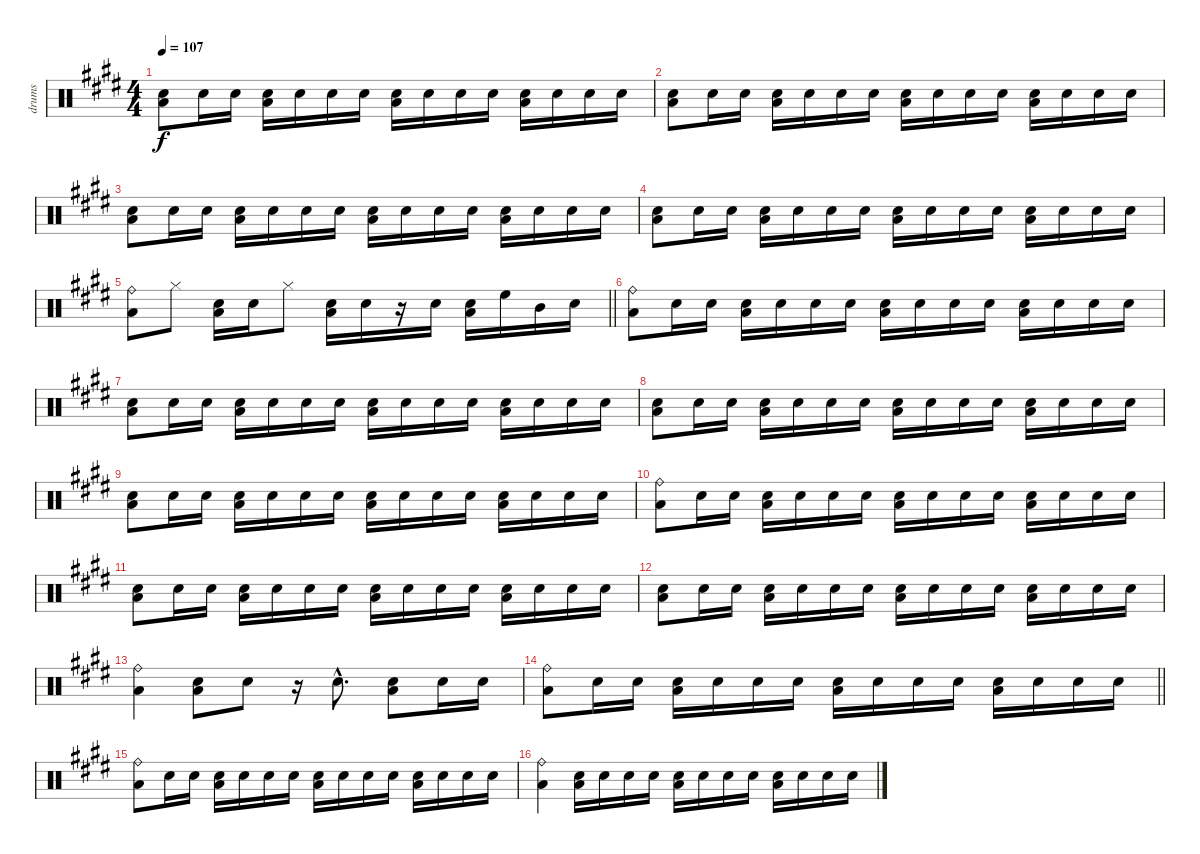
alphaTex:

\track ("drums" "drums") {instrument percussion}
\staff {score}
\articulation defaults
\ts (4 4)
\tempo 107
\clef neutral
\ks e
("Electric Snare (hit)" "Low Floor Tom (hit)").8{dy f} "Electric Snare (hit)".16 "Electric Snare (hit)".16 ("Electric Snare (hit)" "Low Floor Tom (hit)").16 "Electric Snare (hit)".16 "Electric Snare (hit)".16 "Electric Snare (hit)".16 ("Electric Snare (hit)" "Low Floor Tom (hit)").16 "Electric Snare (hit)".16 "Electric Snare (hit)".16 "Electric Snare (hit)".16 ("Electric Snare (hit)" "Low Floor Tom (hit)").16 "Electric Snare (hit)".16 "Electric Snare (hit)".16 "Electric Snare (hit)".16 |
("Electric Snare (hit)" "Low Floor Tom (hit)").8 "Electric Snare (hit)".16 "Electric Snare (hit)".16 ("Electric Snare (hit)" "Low Floor Tom (hit)").16 "Electric Snare (hit)".16 "Electric Snare (hit)".16 "Electric Snare (hit)".16 ("Electric Snare (hit)" "Low Floor Tom (hit)").16 "Electric Snare (hit)".16 "Electric Snare (hit)".16 "Electric Snare (hit)".16 ("Electric Snare (hit)" "Low Floor Tom (hit)").16 "Electric Snare (hit)".16 "Electric Snare (hit)".16 "Electric Snare (hit)".16 |
("Electric Snare (hit)" "Low Floor Tom (hit)").8 "Electric Snare (hit)".16 "Electric Snare (hit)".16 ("Electric Snare (hit)" "Low Floor Tom (hit)").16 "Electric Snare (hit)".16 "Electric Snare (hit)".16 "Electric Snare (hit)".16 ("Electric Snare (hit)" "Low Floor Tom (hit)").16 "Electric Snare (hit)".16 "Electric Snare (hit)".16 "Electric Snare (hit)".16 ("Electric Snare (hit)" "Low Floor Tom (hit)").16 "Electric Snare (hit)".16 "Electric Snare (hit)".16 "Electric Snare (hit)".16 |
("Electric Snare (hit)" "Low Floor Tom (hit)").8 "Electric Snare (hit)".16 "Electric Snare (hit)".16 ("Electric Snare (hit)" "Low Floor Tom (hit)").16 "Electric Snare (hit)".16 "Electric Snare (hit)".16 "Electric Snare (hit)".16 ("Electric Snare (hit)" "Low Floor Tom (hit)").16 "Electric Snare (hit)".16 "Electric Snare (hit)".16 "Electric Snare (hit)".16 ("Electric Snare (hit)" "Low Floor Tom (hit)").16 "Electric Snare (hit)".16 "Electric Snare (hit)".16 "Electric Snare (hit)".16 |
\barLineRight lightlight
("Ride (bell)" "Low Floor Tom (hit)").8 "Hi-Hat (closed)".8 ("Electric Snare (hit)" "Low Floor Tom (hit)").16 "Electric Snare (hit)".16 "Hi-Hat (closed)".8 ("Electric Snare (hit)" "Low Floor Tom (hit)").16 "Electric Snare (hit)".16 r.16 "Electric Snare (hit)".16 ("Electric Snare (hit)" "Low Floor Tom (hit)").16 "High Floor Tom (hit)".16 "Mid Tom (hit)".16 "Snare (hit) 2".16 |
("Ride (bell)" "Low Floor Tom (hit)").8 "Electric Snare (hit)".16 "Electric Snare (hit)".16 ("Electric Snare (hit)" "Low Floor Tom (hit)").16 "Electric Snare (hit)".16 "Electric Snare (hit)".16 "Electric Snare (hit)".16 ("Electric Snare (hit)" "Low Floor Tom (hit)").16 "Electric Snare (hit)".16 "Electric Snare (hit)".16 "Electric Snare (hit)".16 ("Electric Snare (hit)" "Low Floor Tom (hit)").16 "Electric Snare (hit)".16 "Electric Snare (hit)".16 "Electric Snare (hit)".16 |
("Electric Snare (hit)" "Low Floor Tom (hit)").8 "Electric Snare (hit)".16 "Electric Snare (hit)".16 ("Electric Snare (hit)" "Low Floor Tom (hit)").16 "Electric Snare (hit)".16 "Electric Snare (hit)".16 "Electric Snare (hit)".16 ("Electric Snare (hit)" "Low Floor Tom (hit)").16 "Electric Snare (hit)".16 "Electric Snare (hit)".16 "Electric Snare (hit)".16 ("Electric Snare (hit)" "Low Floor Tom (hit)").16 "Electric Snare (hit)".16 "Electric Snare (hit)".16 "Electric Snare (hit)".16 |
("Electric Snare (hit)" "Low Floor Tom (hit)").8 "Electric Snare (hit)".16 "Electric Snare (hit)".16 ("Electric Snare (hit)" "Low Floor Tom (hit)").16 "Electric Snare (hit)".16 "Electric Snare (hit)".16 "Electric Snare (hit)".16 ("Electric Snare (hit)" "Low Floor Tom (hit)").16 "Electric Snare (hit)".16 "Electric Snare (hit)".16 "Electric Snare (hit)".16 ("Electric Snare (hit)" "Low Floor Tom (hit)").16 "Electric Snare (hit)".16 "Electric Snare (hit)".16 "Electric Snare (hit)".16 |
("Electric Snare (hit)" "Low Floor Tom (hit)").8 "Electric Snare (hit)".16 "Electric Snare (hit)".16 ("Electric Snare (hit)" "Low Floor Tom (hit)").16 "Electric Snare (hit)".16 "Electric Snare (hit)".16 "Electric Snare (hit)".16 ("Electric Snare (hit)" "Low Floor Tom (hit)").16 "Electric Snare (hit)".16 "Electric Snare (hit)".16 "Electric Snare (hit)".16 ("Electric Snare (hit)" "Low Floor Tom (hit)").16 "Electric Snare (hit)".16 "Electric Snare (hit)".16 "Electric Snare (hit)".16 |
("Ride (bell)" "Low Floor Tom (hit)").8 "Electric Snare (hit)".16 "Electric Snare (hit)".16 ("Electric Snare (hit)" "Low Floor Tom (hit)").16 "Electric Snare (hit)".16 "Electric Snare (hit)".16 "Electric Snare (hit)".16 ("Electric Snare (hit)" "Low Floor Tom (hit)").16 "Electric Snare (hit)".16 "Electric Snare (hit)".16 "Electric Snare (hit)".16 ("Electric Snare (hit)" "Low Floor Tom (hit)").16 "Electric Snare (hit)".16 "Electric Snare (hit)".16 "Electric Snare (hit)".16 |
("Electric Snare (hit)" "Low Floor Tom (hit)").8 "Electric Snare (hit)".16 "Electric Snare (hit)".16 ("Electric Snare (hit)" "Low Floor Tom (hit)").16 "Electric Snare (hit)".16 "Electric Snare (hit)".16 "Electric Snare (hit)".16 ("Electric Snare (hit)" "Low Floor Tom (hit)").16 "Electric Snare (hit)".16 "Electric Snare (hit)".16 "Electric Snare (hit)".16 ("Electric Snare (hit)" "Low Floor Tom (hit)").16 "Electric Snare (hit)".16 "Electric Snare (hit)".16 "Electric Snare (hit)".16 |
("Electric Snare (hit)" "Low Floor Tom (hit)").8 "Electric Snare (hit)".16 "Electric Snare (hit)".16 ("Electric Snare (hit)" "Low Floor Tom (hit)").16 "Electric Snare (hit)".16 "Electric Snare (hit)".16 "Electric Snare (hit)".16 ("Electric Snare (hit)" "Low Floor Tom (hit)").16 "Electric Snare (hit)".16 "Electric Snare (hit)".16 "Electric Snare (hit)".16 ("Electric Snare (hit)" "Low Floor Tom (hit)").16 "Electric Snare (hit)".16 "Electric Snare (hit)".16 "Electric Snare (hit)".16 |
("Ride (bell)" "Low Floor Tom (hit)").4 ("Electric Snare (hit)" "Low Floor Tom (hit)").8 "Electric Snare (hit)".8 r.16 "Electric Snare (hit)"{hac}.8{d} ("Electric Snare (hit)" "Low Floor Tom (hit)").8 "Electric Snare (hit)".16 "Electric Snare (hit)".16 |
\barLineRight lightlight
("Ride (bell)" "Low Floor Tom (hit)").8 "Electric Snare (hit)".16 "Electric Snare (hit)".16 ("Electric Snare (hit)" "Low Floor Tom (hit)").16 "Electric Snare (hit)".16 "Electric Snare (hit)".16 "Electric Snare (hit)".16 ("Electric Snare (hit)" "Low Floor Tom (hit)").16 "Electric Snare (hit)".16 "Electric Snare (hit)".16 "Electric Snare (hit)".16 ("Electric Snare (hit)" "Low Floor Tom (hit)").16 "Electric Snare (hit)".16 "Electric Snare (hit)".16 "Electric Snare (hit)".16 |
("Ride (bell)" "Low Floor Tom (hit)").8 "Electric Snare (hit)".16 "Electric Snare (hit)".16 ("Electric Snare (hit)" "Low Floor Tom (hit)").16 "Electric Snare (hit)".16 "Electric Snare (hit)".16 "Electric Snare (hit)".16 ("Electric Snare (hit)" "Low Floor Tom (hit)").16 "Electric Snare (hit)".16 "Electric Snare (hit)".16 "Electric Snare (hit)".16 ("Electric Snare (hit)" "Low Floor Tom (hit)").16 "Electric Snare (hit)".16 "Electric Snare (hit)".16 "Electric Snare (hit)".16 |
("Ride (bell)" "Low Floor Tom (hit)").4 ("Electric Snare (hit)" "Low Floor Tom (hit)").16 "Electric Snare (hit)".16 "Electric Snare (hit)".16 "Electric Snare (hit)".16 ("Electric Snare (hit)" "Low Floor Tom (hit)").16 "Electric Snare (hit)".16 "Electric Snare (hit)".16 "Electric Snare (hit)".16 ("Electric Snare (hit)" "Low Floor Tom (hit)").16 "Electric Snare (hit)".16 "Electric Snare (hit)".16 "Electric Snare (hit)".16
